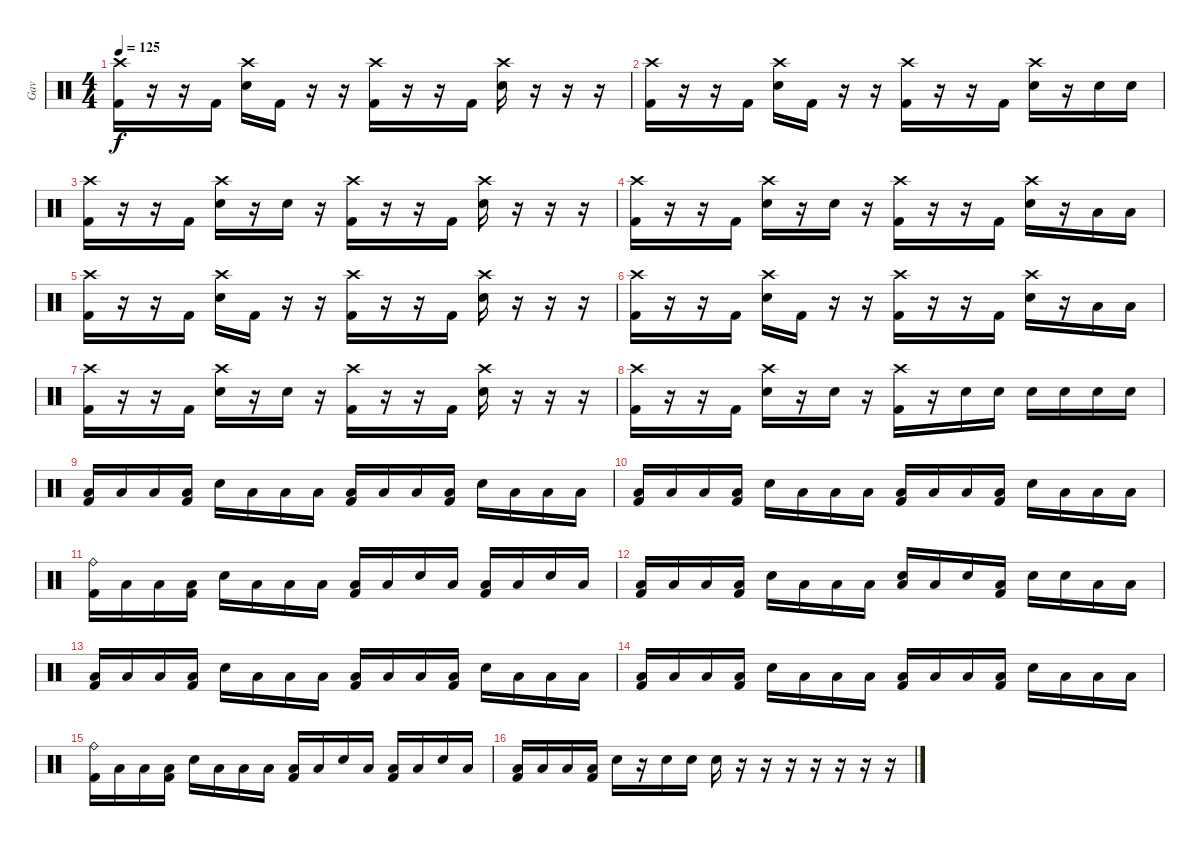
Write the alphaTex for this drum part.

\track ("Gav" "Gav") {instrument percussion}
\staff {score}
\articulation defaults
\ts (4 4)
\tempo 125
\clef neutral
\ks c
("Crash high (hit)" "Kick (hit) 2").16{dy f} r.16 r.16 "Kick (hit) 2".16 ("Crash high (hit)" "Snare (hit) 2").16 "Kick (hit) 2".16 r.16 r.16 ("Crash high (hit)" "Kick (hit) 2").16 r.16 r.16 "Kick (hit) 2".16 ("Crash high (hit)" "Snare (hit) 2").16 r.16 r.16 r.16 |
("Crash high (hit)" "Kick (hit) 2").16 r.16 r.16 "Kick (hit) 2".16 ("Crash high (hit)" "Snare (hit) 2").16 "Kick (hit) 2".16 r.16 r.16 ("Crash high (hit)" "Kick (hit) 2").16 r.16 r.16 "Kick (hit) 2".16 ("Crash high (hit)" "Snare (hit) 2").16 r.16 "Snare (hit) 2".16 "Snare (hit) 2".16 |
("Crash high (hit)" "Kick (hit) 2").16 r.16 r.16 "Kick (hit) 2".16 ("Crash high (hit)" "Snare (hit) 2").16 r.16 "Snare (hit) 2".16 r.16 ("Crash high (hit)" "Kick (hit) 2").16 r.16 r.16 "Kick (hit) 2".16 ("Crash high (hit)" "Snare (hit) 2").16 r.16 r.16 r.16 |
("Crash high (hit)" "Kick (hit) 2").16 r.16 r.16 "Kick (hit) 2".16 ("Crash high (hit)" "Snare (hit) 2").16 r.16 "Snare (hit) 2".16 r.16 ("Crash high (hit)" "Kick (hit) 2").16 r.16 r.16 "Kick (hit) 2".16 ("Crash high (hit)" "Snare (hit) 2").16 r.16 "Low Tom (hit)".16 "Low Tom (hit)".16 |
("Crash high (hit)" "Kick (hit) 2").16 r.16 r.16 "Kick (hit) 2".16 ("Crash high (hit)" "Snare (hit) 2").16 "Kick (hit) 2".16 r.16 r.16 ("Crash high (hit)" "Kick (hit) 2").16 r.16 r.16 "Kick (hit) 2".16 ("Crash high (hit)" "Snare (hit) 2").16 r.16 r.16 r.16 |
("Crash high (hit)" "Kick (hit) 2").16 r.16 r.16 "Kick (hit) 2".16 ("Crash high (hit)" "Snare (hit) 2").16 "Kick (hit) 2".16 r.16 r.16 ("Crash high (hit)" "Kick (hit) 2").16 r.16 r.16 "Kick (hit) 2".16 ("Crash high (hit)" "Snare (hit) 2").16 r.16 "Low Tom (hit)".16 "Low Tom (hit)".16 |
("Crash high (hit)" "Kick (hit) 2").16 r.16 r.16 "Kick (hit) 2".16 ("Crash high (hit)" "Snare (hit) 2").16 r.16 "Snare (hit) 2".16 r.16 ("Crash high (hit)" "Kick (hit) 2").16 r.16 r.16 "Kick (hit) 2".16 ("Crash high (hit)" "Snare (hit) 2").16 r.16 r.16 r.16 |
("Crash high (hit)" "Kick (hit) 2").16 r.16 r.16 "Kick (hit) 2".16 ("Crash high (hit)" "Snare (hit) 2").16 r.16 "Snare (hit) 2".16 r.16 ("Crash high (hit)" "Kick (hit) 2").16 r.16 "Snare (hit) 2".16 "Snare (hit) 2".16 "Snare (hit) 2".16 "Snare (hit) 2".16 "Snare (hit) 2".16 "Snare (hit) 2".16 |
("Low Tom (hit)" "Kick (hit) 2").16 "Low Tom (hit)".16 "Low Floor Tom (hit)".16 ("Low Tom (hit)" "Kick (hit) 2").16 "Snare (hit) 2".16 "Low Tom (hit)".16 "Low Floor Tom (hit)".16 "Low Tom (hit)".16 ("Low Tom (hit)" "Kick (hit) 2").16 "Low Tom (hit)".16 "Low Floor Tom (hit)".16 ("Low Tom (hit)" "Kick (hit) 2").16 "Snare (hit) 2".16 "Low Tom (hit)".16 "Low Floor Tom (hit)".16 "Low Tom (hit)".16 |
("Low Tom (hit)" "Kick (hit) 2").16 "Low Tom (hit)".16 "Low Floor Tom (hit)".16 ("Low Tom (hit)" "Kick (hit) 2").16 "Snare (hit) 2".16 "Low Tom (hit)".16 "Low Floor Tom (hit)".16 "Low Tom (hit)".16 ("Low Tom (hit)" "Kick (hit) 2").16 "Low Tom (hit)".16 "Low Floor Tom (hit)".16 ("Low Tom (hit)" "Kick (hit) 2").16 "Snare (hit) 2".16 "Low Tom (hit)".16 "Low Floor Tom (hit)".16 "Low Tom (hit)".16 |
("Ride (bell)" "Kick (hit) 2").16 "Low Tom (hit)".16 "Low Floor Tom (hit)".16 ("Low Tom (hit)" "Kick (hit) 2").16 "Snare (hit) 2".16 "Low Tom (hit)".16 "Low Floor Tom (hit)".16 "Low Tom (hit)".16 ("Low Tom (hit)" "Kick (hit) 2").16 "Low Tom (hit)".16 "Snare (hit) 2".16 "Low Tom (hit)".16 ("Low Floor Tom (hit)" "Kick (hit) 2").16 "Low Tom (hit)".16 "Snare (hit) 2".16 "Low Tom (hit)".16 |
("Low Tom (hit)" "Kick (hit) 2").16 "Low Tom (hit)".16 "Low Floor Tom (hit)".16 ("Low Tom (hit)" "Kick (hit) 2").16 "Snare (hit) 2".16 "Low Tom (hit)".16 "Low Floor Tom (hit)".16 "Low Tom (hit)".16 ("Low Floor Tom (hit)" "Snare (hit) 2").16 "Low Tom (hit)".16 "Snare (hit) 2".16 ("Low Tom (hit)" "Kick (hit) 2").16 "Snare (hit) 2".16 "Snare (hit) 2".16 "Low Tom (hit)".16 "Low Tom (hit)".16 |
("Low Tom (hit)" "Kick (hit) 2").16 "Low Tom (hit)".16 "Low Floor Tom (hit)".16 ("Low Tom (hit)" "Kick (hit) 2").16 "Snare (hit) 2".16 "Low Tom (hit)".16 "Low Floor Tom (hit)".16 "Low Tom (hit)".16 ("Low Tom (hit)" "Kick (hit) 2").16 "Low Tom (hit)".16 "Low Floor Tom (hit)".16 ("Low Tom (hit)" "Kick (hit) 2").16 "Snare (hit) 2".16 "Low Tom (hit)".16 "Low Floor Tom (hit)".16 "Low Tom (hit)".16 |
("Low Tom (hit)" "Kick (hit) 2").16 "Low Tom (hit)".16 "Low Floor Tom (hit)".16 ("Low Tom (hit)" "Kick (hit) 2").16 "Snare (hit) 2".16 "Low Tom (hit)".16 "Low Floor Tom (hit)".16 "Low Tom (hit)".16 ("Low Tom (hit)" "Kick (hit) 2").16 "Low Tom (hit)".16 "Low Floor Tom (hit)".16 ("Low Tom (hit)" "Kick (hit) 2").16 "Snare (hit) 2".16 "Low Tom (hit)".16 "Low Floor Tom (hit)".16 "Low Tom (hit)".16 |
("Ride (bell)" "Kick (hit) 2").16 "Low Tom (hit)".16 "Low Floor Tom (hit)".16 ("Low Tom (hit)" "Kick (hit) 2").16 "Snare (hit) 2".16 "Low Tom (hit)".16 "Low Floor Tom (hit)".16 "Low Tom (hit)".16 ("Low Tom (hit)" "Kick (hit) 2").16 "Low Tom (hit)".16 "Snare (hit) 2".16 "Low Tom (hit)".16 ("Low Floor Tom (hit)" "Kick (hit) 2").16 "Low Tom (hit)".16 "Snare (hit) 2".16 "Low Tom (hit)".16 |
("Low Tom (hit)" "Kick (hit) 2").16 "Low Tom (hit)".16 "Low Floor Tom (hit)".16 ("Low Tom (hit)" "Kick (hit) 2").16 "Snare (hit) 2".16 r.16 "Snare (hit) 2".16 "Snare (hit) 2".16 "Snare (hit) 2".16 r.16 r.16 r.16 r.16 r.16 r.16 r.16
